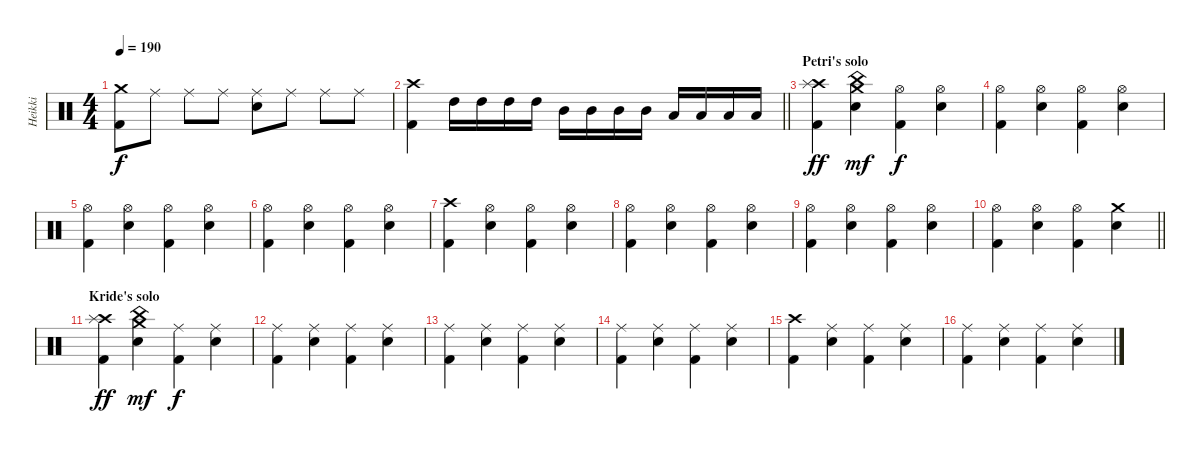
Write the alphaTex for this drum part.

\track ("Heikki" "Heikki") {instrument percussion}
\staff {score}
\articulation defaults
\ts (4 4)
\tempo 190
\clef neutral
\ks c
("Crash medium (hit)" "Kick (hit) 2").8{dy f} "Ride (middle)".8 "Ride (middle)".8 "Ride (middle)".8 ("Ride (middle)" "Electric Snare (hit)").8 "Ride (middle)".8 "Ride (middle)".8 "Ride (middle)".8 |
\barLineRight lightlight
("Crash high (hit)" "Kick (hit) 2").4 "High Tom (hit)".16 "High Tom (hit)".16 "High Tom (hit)".16 "High Tom (hit)".16 "Mid Tom (hit)".16 "Mid Tom (hit)".16 "Mid Tom (hit)".16 "Mid Tom (hit)".16 "Low Tom (hit)".16 "Low Tom (hit)".16 "Low Tom (hit)".16 "Low Tom (hit)".16 |
\section ("" "Petri's solo")
("Crash high (hit)" "Splash (hit)" "Kick (hit) 2").4{dy ff} ("China (hit)" "Crash medium (hit)" "Electric Snare (hit)").4{dy mf} ("Hi-Hat (open)" "Kick (hit) 2").4{dy f} ("Hi-Hat (open)" "Electric Snare (hit)").4 |
("Hi-Hat (open)" "Kick (hit) 2").4 ("Hi-Hat (open)" "Electric Snare (hit)").4 ("Hi-Hat (open)" "Kick (hit) 2").4 ("Hi-Hat (open)" "Electric Snare (hit)").4 |
("Hi-Hat (open)" "Kick (hit) 2").4 ("Hi-Hat (open)" "Electric Snare (hit)").4 ("Hi-Hat (open)" "Kick (hit) 2").4 ("Hi-Hat (open)" "Electric Snare (hit)").4 |
("Hi-Hat (open)" "Kick (hit) 2").4 ("Hi-Hat (open)" "Electric Snare (hit)").4 ("Hi-Hat (open)" "Kick (hit) 2").4 ("Hi-Hat (open)" "Electric Snare (hit)").4 |
("Crash high (hit)" "Kick (hit) 2").4 ("Hi-Hat (open)" "Electric Snare (hit)").4 ("Hi-Hat (open)" "Kick (hit) 2").4 ("Hi-Hat (open)" "Electric Snare (hit)").4 |
("Hi-Hat (open)" "Kick (hit) 2").4 ("Hi-Hat (open)" "Electric Snare (hit)").4 ("Hi-Hat (open)" "Kick (hit) 2").4 ("Hi-Hat (open)" "Electric Snare (hit)").4 |
("Hi-Hat (open)" "Kick (hit) 2").4 ("Hi-Hat (open)" "Electric Snare (hit)").4 ("Hi-Hat (open)" "Kick (hit) 2").4 ("Hi-Hat (open)" "Electric Snare (hit)").4 |
\barLineRight lightlight
("Hi-Hat (open)" "Kick (hit) 2").4 ("Hi-Hat (open)" "Electric Snare (hit)").4 ("Hi-Hat (open)" "Kick (hit) 2").4 ("Crash medium (hit)" "Electric Snare (hit)").4 |
\section ("" "Kride's solo")
("Crash high (hit)" "Splash (hit)" "Kick (hit) 2").4{dy ff} ("China (hit)" "Crash medium (hit)" "Electric Snare (hit)").4{dy mf} ("Ride (middle)" "Kick (hit) 2").4{dy f} ("Ride (middle)" "Electric Snare (hit)").4 |
("Ride (middle)" "Kick (hit) 2").4 ("Ride (middle)" "Electric Snare (hit)").4 ("Ride (middle)" "Kick (hit) 2").4 ("Ride (middle)" "Electric Snare (hit)").4 |
("Ride (middle)" "Kick (hit) 2").4 ("Ride (middle)" "Electric Snare (hit)").4 ("Ride (middle)" "Kick (hit) 2").4 ("Ride (middle)" "Electric Snare (hit)").4 |
("Ride (middle)" "Kick (hit) 2").4 ("Ride (middle)" "Electric Snare (hit)").4 ("Ride (middle)" "Kick (hit) 2").4 ("Ride (middle)" "Electric Snare (hit)").4 |
("Crash high (hit)" "Kick (hit) 2").4 ("Ride (middle)" "Electric Snare (hit)").4 ("Ride (middle)" "Kick (hit) 2").4 ("Ride (middle)" "Electric Snare (hit)").4 |
("Ride (middle)" "Kick (hit) 2").4 ("Ride (middle)" "Electric Snare (hit)").4 ("Ride (middle)" "Kick (hit) 2").4 ("Ride (middle)" "Electric Snare (hit)").4
